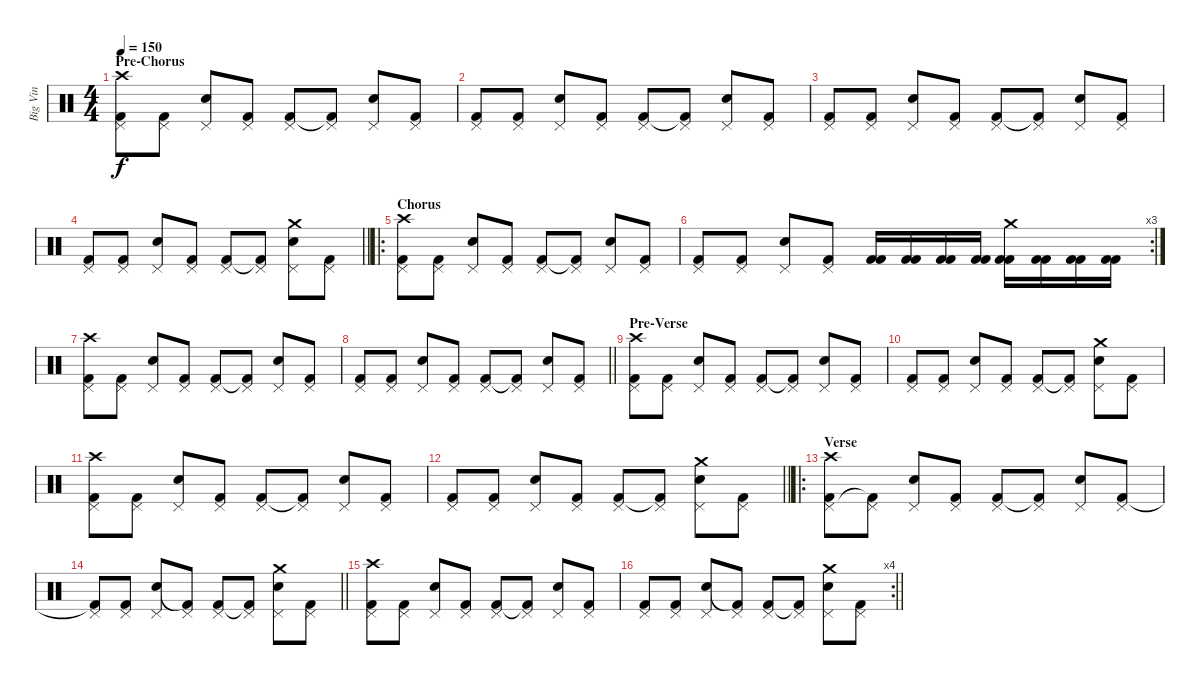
\track ("Big Vin" "Big Vin") {instrument percussion}
\staff {score}
\articulation defaults
\ts (4 4)
\section ("" "Pre-Chorus")
\tempo 150
\clef neutral
\ks c
("Crash high (hit)" "Pedal Hi-Hat (hit)" "Kick (hit) 2").8{dy f} ("Pedal Hi-Hat (hit)" "Kick (hit) 2").8 ("Pedal Hi-Hat (hit)" "Electric Snare (hit)").8 ("Pedal Hi-Hat (hit)" "Kick (hit) 2").8 ("Pedal Hi-Hat (hit)" "Kick (hit) 2").8 ("Pedal Hi-Hat (hit)" "Kick (hit) 2"{t}).8 ("Pedal Hi-Hat (hit)" "Electric Snare (hit)").8 ("Pedal Hi-Hat (hit)" "Kick (hit) 2").8 |
("Pedal Hi-Hat (hit)" "Kick (hit) 2").8 ("Pedal Hi-Hat (hit)" "Kick (hit) 2").8 ("Pedal Hi-Hat (hit)" "Electric Snare (hit)").8 ("Pedal Hi-Hat (hit)" "Kick (hit) 2").8 ("Pedal Hi-Hat (hit)" "Kick (hit) 2").8 ("Pedal Hi-Hat (hit)" "Kick (hit) 2"{t}).8 ("Pedal Hi-Hat (hit)" "Electric Snare (hit)").8 ("Pedal Hi-Hat (hit)" "Kick (hit) 2").8 |
("Pedal Hi-Hat (hit)" "Kick (hit) 2").8 ("Pedal Hi-Hat (hit)" "Kick (hit) 2").8 ("Pedal Hi-Hat (hit)" "Electric Snare (hit)").8 ("Pedal Hi-Hat (hit)" "Kick (hit) 2").8 ("Pedal Hi-Hat (hit)" "Kick (hit) 2").8 ("Pedal Hi-Hat (hit)" "Kick (hit) 2"{t}).8 ("Pedal Hi-Hat (hit)" "Electric Snare (hit)").8 ("Pedal Hi-Hat (hit)" "Kick (hit) 2").8 |
\barLineRight lightlight
("Pedal Hi-Hat (hit)" "Kick (hit) 2").8 ("Pedal Hi-Hat (hit)" "Kick (hit) 2").8 ("Pedal Hi-Hat (hit)" "Electric Snare (hit)").8 ("Pedal Hi-Hat (hit)" "Kick (hit) 2").8 ("Pedal Hi-Hat (hit)" "Kick (hit) 2").8 ("Pedal Hi-Hat (hit)" "Kick (hit) 2"{t}).8 ("Crash medium (hit)" "Pedal Hi-Hat (hit)" "Electric Snare (hit)").8 ("Pedal Hi-Hat (hit)" "Kick (hit) 2").8 |
\ro
\section ("" "Chorus")
("Crash high (hit)" "Pedal Hi-Hat (hit)" "Kick (hit) 2").8 ("Pedal Hi-Hat (hit)" "Kick (hit) 2").8 ("Pedal Hi-Hat (hit)" "Electric Snare (hit)").8 ("Pedal Hi-Hat (hit)" "Kick (hit) 2").8 ("Pedal Hi-Hat (hit)" "Kick (hit) 2").8 ("Pedal Hi-Hat (hit)" "Kick (hit) 2"{t}).8 ("Pedal Hi-Hat (hit)" "Electric Snare (hit)").8 ("Pedal Hi-Hat (hit)" "Kick (hit) 2").8 |
\rc 3
("Pedal Hi-Hat (hit)" "Kick (hit) 2").8 ("Pedal Hi-Hat (hit)" "Kick (hit) 2").8 ("Pedal Hi-Hat (hit)" "Electric Snare (hit)").8 ("Pedal Hi-Hat (hit)" "Kick (hit) 2").8 ("Kick (hit) 2" "Kick (hit) 2").16 ("Kick (hit) 2" "Kick (hit) 2").16 ("Kick (hit) 2" "Kick (hit) 2").16 ("Kick (hit) 2" "Kick (hit) 2").16 ("Crash medium (hit)" "Kick (hit) 2" "Kick (hit) 2").16 ("Kick (hit) 2" "Kick (hit) 2").16 ("Kick (hit) 2" "Kick (hit) 2").16 ("Kick (hit) 2" "Kick (hit) 2").16 |
("Crash high (hit)" "Pedal Hi-Hat (hit)" "Kick (hit) 2").8 ("Pedal Hi-Hat (hit)" "Kick (hit) 2").8 ("Pedal Hi-Hat (hit)" "Electric Snare (hit)").8 ("Pedal Hi-Hat (hit)" "Kick (hit) 2").8 ("Pedal Hi-Hat (hit)" "Kick (hit) 2").8 ("Pedal Hi-Hat (hit)" "Kick (hit) 2"{t}).8 ("Pedal Hi-Hat (hit)" "Electric Snare (hit)").8 ("Pedal Hi-Hat (hit)" "Kick (hit) 2").8 |
\barLineRight lightlight
("Pedal Hi-Hat (hit)" "Kick (hit) 2").8 ("Pedal Hi-Hat (hit)" "Kick (hit) 2").8 ("Pedal Hi-Hat (hit)" "Electric Snare (hit)").8 ("Pedal Hi-Hat (hit)" "Kick (hit) 2").8 ("Pedal Hi-Hat (hit)" "Kick (hit) 2").8 ("Pedal Hi-Hat (hit)" "Kick (hit) 2"{t}).8 ("Pedal Hi-Hat (hit)" "Electric Snare (hit)").8 ("Pedal Hi-Hat (hit)" "Kick (hit) 2").8 |
\section ("" "Pre-Verse")
("Crash high (hit)" "Pedal Hi-Hat (hit)" "Kick (hit) 2").8 ("Pedal Hi-Hat (hit)" "Kick (hit) 2").8 ("Pedal Hi-Hat (hit)" "Electric Snare (hit)").8 ("Pedal Hi-Hat (hit)" "Kick (hit) 2").8 ("Pedal Hi-Hat (hit)" "Kick (hit) 2").8 ("Pedal Hi-Hat (hit)" "Kick (hit) 2"{t}).8 ("Pedal Hi-Hat (hit)" "Electric Snare (hit)").8 ("Pedal Hi-Hat (hit)" "Kick (hit) 2").8 |
("Pedal Hi-Hat (hit)" "Kick (hit) 2").8 ("Pedal Hi-Hat (hit)" "Kick (hit) 2").8 ("Pedal Hi-Hat (hit)" "Electric Snare (hit)").8 ("Pedal Hi-Hat (hit)" "Kick (hit) 2").8 ("Pedal Hi-Hat (hit)" "Kick (hit) 2").8 ("Pedal Hi-Hat (hit)" "Kick (hit) 2"{t}).8 ("Crash medium (hit)" "Pedal Hi-Hat (hit)" "Electric Snare (hit)").8 ("Pedal Hi-Hat (hit)" "Kick (hit) 2").8 |
("Crash high (hit)" "Pedal Hi-Hat (hit)" "Kick (hit) 2").8 ("Pedal Hi-Hat (hit)" "Kick (hit) 2").8 ("Pedal Hi-Hat (hit)" "Electric Snare (hit)").8 ("Pedal Hi-Hat (hit)" "Kick (hit) 2").8 ("Pedal Hi-Hat (hit)" "Kick (hit) 2").8 ("Pedal Hi-Hat (hit)" "Kick (hit) 2"{t}).8 ("Pedal Hi-Hat (hit)" "Electric Snare (hit)").8 ("Pedal Hi-Hat (hit)" "Kick (hit) 2").8 |
\barLineRight lightlight
("Pedal Hi-Hat (hit)" "Kick (hit) 2").8 ("Pedal Hi-Hat (hit)" "Kick (hit) 2").8 ("Pedal Hi-Hat (hit)" "Electric Snare (hit)").8 ("Pedal Hi-Hat (hit)" "Kick (hit) 2").8 ("Pedal Hi-Hat (hit)" "Kick (hit) 2").8 ("Pedal Hi-Hat (hit)" "Kick (hit) 2"{t}).8 ("Crash medium (hit)" "Pedal Hi-Hat (hit)" "Electric Snare (hit)").8 ("Pedal Hi-Hat (hit)" "Kick (hit) 2").8 |
\ro
\section ("" "Verse")
("Crash high (hit)" "Pedal Hi-Hat (hit)" "Kick (hit) 2").8 ("Pedal Hi-Hat (hit)" "Kick (hit) 2"{t}).8 ("Pedal Hi-Hat (hit)" "Electric Snare (hit)").8 ("Pedal Hi-Hat (hit)" "Kick (hit) 2").8 ("Pedal Hi-Hat (hit)" "Kick (hit) 2").8 ("Pedal Hi-Hat (hit)" "Kick (hit) 2"{t}).8 ("Pedal Hi-Hat (hit)" "Electric Snare (hit)").8 ("Pedal Hi-Hat (hit)" "Kick (hit) 2").8 |
\barLineRight lightlight
("Pedal Hi-Hat (hit)" "Kick (hit) 2"{t}).8 ("Pedal Hi-Hat (hit)" "Kick (hit) 2").8 ("Pedal Hi-Hat (hit)" "Electric Snare (hit)").8 ("Pedal Hi-Hat (hit)" "Kick (hit) 2"{t}).8 ("Pedal Hi-Hat (hit)" "Kick (hit) 2").8 ("Pedal Hi-Hat (hit)" "Kick (hit) 2"{t}).8 ("Crash medium (hit)" "Pedal Hi-Hat (hit)" "Electric Snare (hit)").8 ("Pedal Hi-Hat (hit)" "Kick (hit) 2").8 |
("Crash high (hit)" "Pedal Hi-Hat (hit)" "Kick (hit) 2").8 ("Pedal Hi-Hat (hit)" "Kick (hit) 2").8 ("Pedal Hi-Hat (hit)" "Electric Snare (hit)").8 ("Pedal Hi-Hat (hit)" "Kick (hit) 2").8 ("Pedal Hi-Hat (hit)" "Kick (hit) 2").8 ("Pedal Hi-Hat (hit)" "Kick (hit) 2"{t}).8 ("Pedal Hi-Hat (hit)" "Electric Snare (hit)").8 ("Pedal Hi-Hat (hit)" "Kick (hit) 2").8 |
\rc 4
\barLineRight lightlight
("Pedal Hi-Hat (hit)" "Kick (hit) 2").8 ("Pedal Hi-Hat (hit)" "Kick (hit) 2").8 ("Pedal Hi-Hat (hit)" "Electric Snare (hit)").8 ("Pedal Hi-Hat (hit)" "Kick (hit) 2"{t}).8 ("Pedal Hi-Hat (hit)" "Kick (hit) 2").8 ("Pedal Hi-Hat (hit)" "Kick (hit) 2"{t}).8 ("Crash medium (hit)" "Pedal Hi-Hat (hit)" "Electric Snare (hit)").8 ("Pedal Hi-Hat (hit)" "Kick (hit) 2").8
